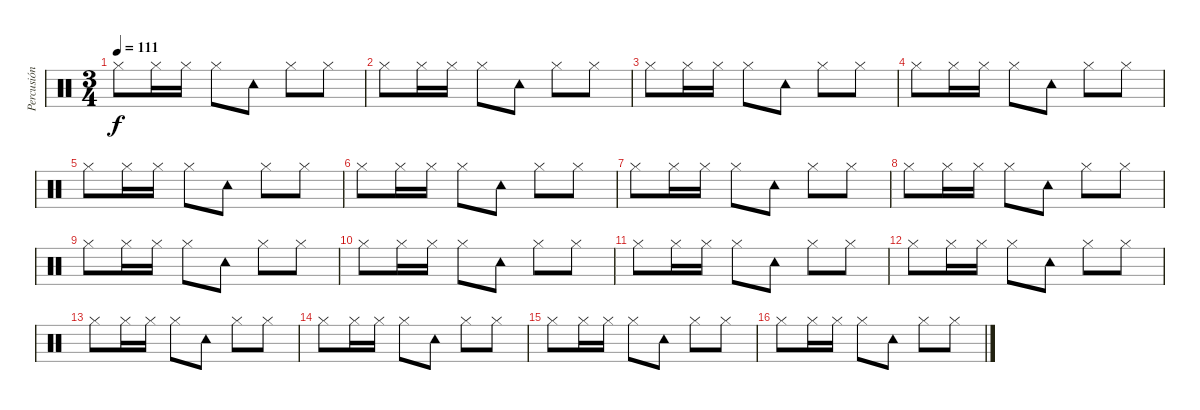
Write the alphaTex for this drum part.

\track ("Percusión" "Percusión") {instrument percussion}
\staff {score}
\articulation defaults
\ts (3 4)
\tempo 111
\clef neutral
\ks c "Hi-Hat (closed)".8{dy f} "Hi-Hat (closed)".16 "Hi-Hat (closed)".16 "Hi-Hat (closed)".8 "Tambourine (hit)".8 "Hi-Hat (closed)".8 "Hi-Hat (closed)".8
|
"Hi-Hat (closed)".8 "Hi-Hat (closed)".16 "Hi-Hat (closed)".16 "Hi-Hat (closed)".8 "Tambourine (hit)".8 "Hi-Hat (closed)".8 "Hi-Hat (closed)".8 |
"Hi-Hat (closed)".8 "Hi-Hat (closed)".16 "Hi-Hat (closed)".16 "Hi-Hat (closed)".8 "Tambourine (hit)".8 "Hi-Hat (closed)".8 "Hi-Hat (closed)".8 |
"Hi-Hat (closed)".8 "Hi-Hat (closed)".16 "Hi-Hat (closed)".16 "Hi-Hat (closed)".8 "Tambourine (hit)".8 "Hi-Hat (closed)".8 "Hi-Hat (closed)".8 |
"Hi-Hat (closed)".8 "Hi-Hat (closed)".16 "Hi-Hat (closed)".16 "Hi-Hat (closed)".8 "Tambourine (hit)".8 "Hi-Hat (closed)".8 "Hi-Hat (closed)".8 |
"Hi-Hat (closed)".8 "Hi-Hat (closed)".16 "Hi-Hat (closed)".16 "Hi-Hat (closed)".8 "Tambourine (hit)".8 "Hi-Hat (closed)".8 "Hi-Hat (closed)".8 |
"Hi-Hat (closed)".8 "Hi-Hat (closed)".16 "Hi-Hat (closed)".16 "Hi-Hat (closed)".8 "Tambourine (hit)".8 "Hi-Hat (closed)".8 "Hi-Hat (closed)".8 |
"Hi-Hat (closed)".8 "Hi-Hat (closed)".16 "Hi-Hat (closed)".16 "Hi-Hat (closed)".8 "Tambourine (hit)".8 "Hi-Hat (closed)".8 "Hi-Hat (closed)".8 |
"Hi-Hat (closed)".8 "Hi-Hat (closed)".16 "Hi-Hat (closed)".16 "Hi-Hat (closed)".8 "Tambourine (hit)".8 "Hi-Hat (closed)".8 "Hi-Hat (closed)".8 |
"Hi-Hat (closed)".8 "Hi-Hat (closed)".16 "Hi-Hat (closed)".16 "Hi-Hat (closed)".8 "Tambourine (hit)".8 "Hi-Hat (closed)".8 "Hi-Hat (closed)".8 |
"Hi-Hat (closed)".8 "Hi-Hat (closed)".16 "Hi-Hat (closed)".16 "Hi-Hat (closed)".8 "Tambourine (hit)".8 "Hi-Hat (closed)".8 "Hi-Hat (closed)".8 |
"Hi-Hat (closed)".8 "Hi-Hat (closed)".16 "Hi-Hat (closed)".16 "Hi-Hat (closed)".8 "Tambourine (hit)".8 "Hi-Hat (closed)".8 "Hi-Hat (closed)".8 |
"Hi-Hat (closed)".8 "Hi-Hat (closed)".16 "Hi-Hat (closed)".16 "Hi-Hat (closed)".8 "Tambourine (hit)".8 "Hi-Hat (closed)".8 "Hi-Hat (closed)".8 |
"Hi-Hat (closed)".8 "Hi-Hat (closed)".16 "Hi-Hat (closed)".16 "Hi-Hat (closed)".8 "Tambourine (hit)".8 "Hi-Hat (closed)".8 "Hi-Hat (closed)".8 |
"Hi-Hat (closed)".8 "Hi-Hat (closed)".16 "Hi-Hat (closed)".16 "Hi-Hat (closed)".8 "Tambourine (hit)".8 "Hi-Hat (closed)".8 "Hi-Hat (closed)".8 |
"Hi-Hat (closed)".8 "Hi-Hat (closed)".16 "Hi-Hat (closed)".16 "Hi-Hat (closed)".8 "Tambourine (hit)".8 "Hi-Hat (closed)".8 "Hi-Hat (closed)".8
